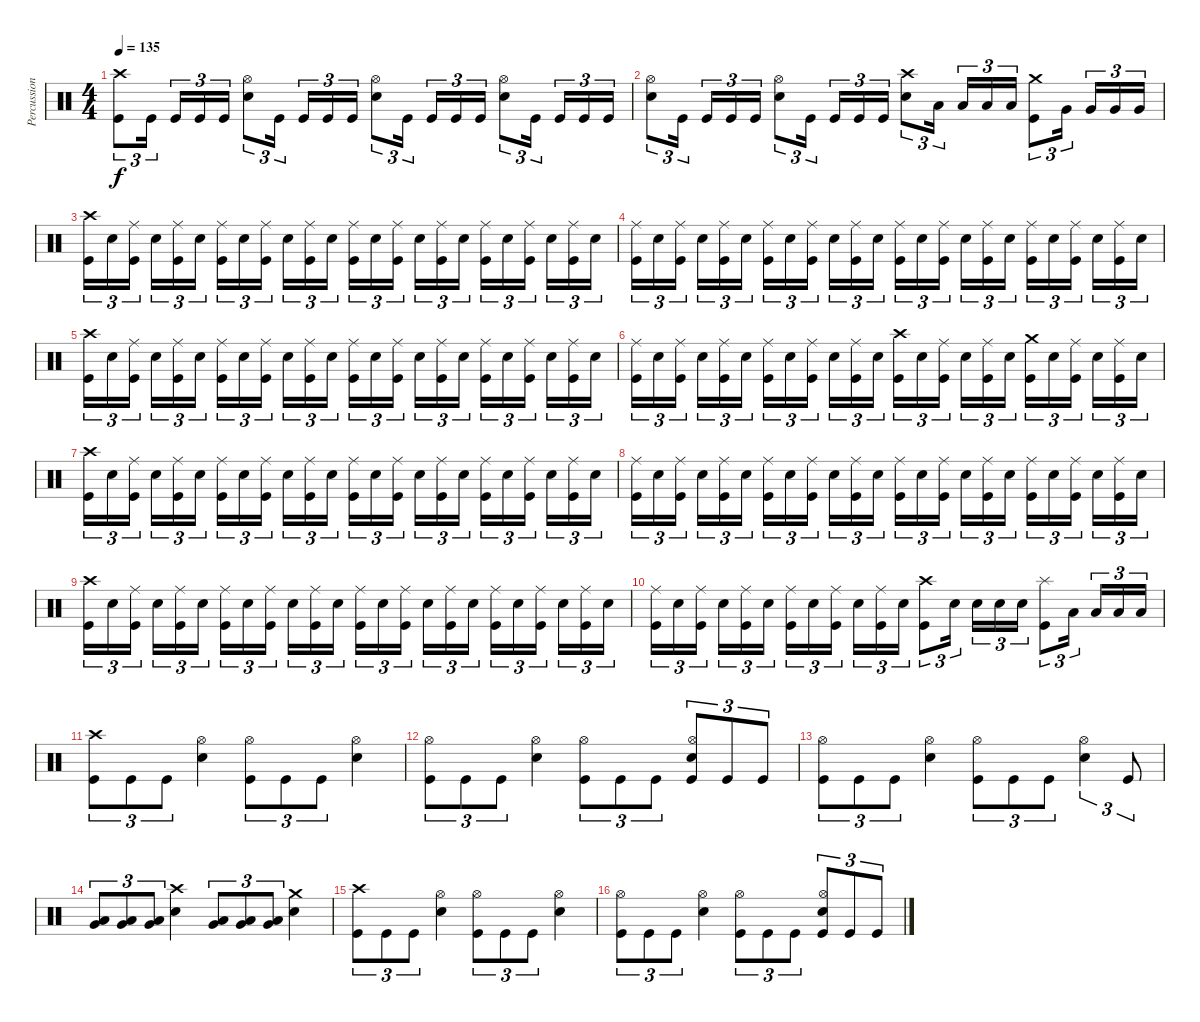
\track ("Percussions" "Percussion") {instrument percussion}
\staff {score}
\articulation defaults
\ts (4 4)
\tempo 135
\clef neutral
\ks c
("Crash high (hit)" "Kick (hit)").8{tu (3 2) dy f} "Kick (hit)".16{tu (3 2) beam splitsecondary} "Kick (hit)".16{tu (3 2)} "Kick (hit)".16{tu (3 2)} "Kick (hit)".16{tu (3 2)} ("Hi-Hat (open)" "Electric Snare (hit)").8{tu (3 2)} "Kick (hit)".16{tu (3 2) beam splitsecondary} "Kick (hit)".16{tu (3 2)} "Kick (hit)".16{tu (3 2)} "Kick (hit)".16{tu (3 2)} ("Hi-Hat (open)" "Electric Snare (hit)").8{tu (3 2)} "Kick (hit)".16{tu (3 2) beam splitsecondary} "Kick (hit)".16{tu (3 2)} "Kick (hit)".16{tu (3 2)} "Kick (hit)".16{tu (3 2)} ("Hi-Hat (open)" "Electric Snare (hit)").8{tu (3 2)} "Kick (hit)".16{tu (3 2) beam splitsecondary} "Kick (hit)".16{tu (3 2)} "Kick (hit)".16{tu (3 2)} "Kick (hit)".16{tu (3 2)} |
("Hi-Hat (open)" "Electric Snare (hit)").8{tu (3 2)} "Kick (hit)".16{tu (3 2) beam splitsecondary} "Kick (hit)".16{tu (3 2)} "Kick (hit)".16{tu (3 2)} "Kick (hit)".16{tu (3 2)} ("Hi-Hat (open)" "Electric Snare (hit)").8{tu (3 2)} "Kick (hit)".16{tu (3 2) beam splitsecondary} "Kick (hit)".16{tu (3 2)} "Kick (hit)".16{tu (3 2)} "Kick (hit)".16{tu (3 2)} ("Crash high (hit)" "Electric Snare (hit)").8{tu (3 2)} "Low Tom (hit)".16{tu (3 2) beam splitsecondary} "Low Tom (hit)".16{tu (3 2)} "Low Tom (hit)".16{tu (3 2)} "Low Tom (hit)".16{tu (3 2)} ("Crash medium (hit)" "Kick (hit)").8{tu (3 2)} "Very Low Tom (hit)".16{tu (3 2) beam splitsecondary} "Very Low Tom (hit)".16{tu (3 2)} "Very Low Tom (hit)".16{tu (3 2)} "Very Low Tom (hit)".16{tu (3 2)} |
("Crash high (hit)" "Kick (hit)").16{tu (3 2)} "Electric Snare (hit)".16{tu (3 2)} ("Ride (middle)" "Kick (hit)").16{tu (3 2) beam splitsecondary} "Electric Snare (hit)".16{tu (3 2)} ("Ride (middle)" "Kick (hit)").16{tu (3 2)} "Electric Snare (hit)".16{tu (3 2)} ("Ride (middle)" "Kick (hit)").16{tu (3 2)} "Electric Snare (hit)".16{tu (3 2)} ("Ride (middle)" "Kick (hit)").16{tu (3 2) beam splitsecondary} "Electric Snare (hit)".16{tu (3 2)} ("Ride (middle)" "Kick (hit)").16{tu (3 2)} "Electric Snare (hit)".16{tu (3 2)} ("Ride (middle)" "Kick (hit)").16{tu (3 2)} "Electric Snare (hit)".16{tu (3 2)} ("Ride (middle)" "Kick (hit)").16{tu (3 2) beam splitsecondary} "Electric Snare (hit)".16{tu (3 2)} ("Ride (middle)" "Kick (hit)").16{tu (3 2)} "Electric Snare (hit)".16{tu (3 2)} ("Ride (middle)" "Kick (hit)").16{tu (3 2)} "Electric Snare (hit)".16{tu (3 2)} ("Ride (middle)" "Kick (hit)").16{tu (3 2) beam splitsecondary} "Electric Snare (hit)".16{tu (3 2)} ("Ride (middle)" "Kick (hit)").16{tu (3 2)} "Electric Snare (hit)".16{tu (3 2)} |
("Ride (middle)" "Kick (hit)").16{tu (3 2)} "Electric Snare (hit)".16{tu (3 2)} ("Ride (middle)" "Kick (hit)").16{tu (3 2) beam splitsecondary} "Electric Snare (hit)".16{tu (3 2)} ("Ride (middle)" "Kick (hit)").16{tu (3 2)} "Electric Snare (hit)".16{tu (3 2)} ("Ride (middle)" "Kick (hit)").16{tu (3 2)} "Electric Snare (hit)".16{tu (3 2)} ("Ride (middle)" "Kick (hit)").16{tu (3 2) beam splitsecondary} "Electric Snare (hit)".16{tu (3 2)} ("Ride (middle)" "Kick (hit)").16{tu (3 2)} "Electric Snare (hit)".16{tu (3 2)} ("Ride (middle)" "Kick (hit)").16{tu (3 2)} "Electric Snare (hit)".16{tu (3 2)} ("Ride (middle)" "Kick (hit)").16{tu (3 2) beam splitsecondary} "Electric Snare (hit)".16{tu (3 2)} ("Ride (middle)" "Kick (hit)").16{tu (3 2)} "Electric Snare (hit)".16{tu (3 2)} ("Ride (middle)" "Kick (hit)").16{tu (3 2)} "Electric Snare (hit)".16{tu (3 2)} ("Ride (middle)" "Kick (hit)").16{tu (3 2) beam splitsecondary} "Electric Snare (hit)".16{tu (3 2)} ("Ride (middle)" "Kick (hit)").16{tu (3 2)} "Electric Snare (hit)".16{tu (3 2)} |
("Crash high (hit)" "Kick (hit)").16{tu (3 2)} "Electric Snare (hit)".16{tu (3 2)} ("Ride (middle)" "Kick (hit)").16{tu (3 2) beam splitsecondary} "Electric Snare (hit)".16{tu (3 2)} ("Ride (middle)" "Kick (hit)").16{tu (3 2)} "Electric Snare (hit)".16{tu (3 2)} ("Ride (middle)" "Kick (hit)").16{tu (3 2)} "Electric Snare (hit)".16{tu (3 2)} ("Ride (middle)" "Kick (hit)").16{tu (3 2) beam splitsecondary} "Electric Snare (hit)".16{tu (3 2)} ("Ride (middle)" "Kick (hit)").16{tu (3 2)} "Electric Snare (hit)".16{tu (3 2)} ("Ride (middle)" "Kick (hit)").16{tu (3 2)} "Electric Snare (hit)".16{tu (3 2)} ("Ride (middle)" "Kick (hit)").16{tu (3 2) beam splitsecondary} "Electric Snare (hit)".16{tu (3 2)} ("Ride (middle)" "Kick (hit)").16{tu (3 2)} "Electric Snare (hit)".16{tu (3 2)} ("Ride (middle)" "Kick (hit)").16{tu (3 2)} "Electric Snare (hit)".16{tu (3 2)} ("Ride (middle)" "Kick (hit)").16{tu (3 2) beam splitsecondary} "Electric Snare (hit)".16{tu (3 2)} ("Ride (middle)" "Kick (hit)").16{tu (3 2)} "Electric Snare (hit)".16{tu (3 2)} |
("Ride (middle)" "Kick (hit)").16{tu (3 2)} "Electric Snare (hit)".16{tu (3 2)} ("Ride (middle)" "Kick (hit)").16{tu (3 2) beam splitsecondary} "Electric Snare (hit)".16{tu (3 2)} ("Ride (middle)" "Kick (hit)").16{tu (3 2)} "Electric Snare (hit)".16{tu (3 2)} ("Ride (middle)" "Kick (hit)").16{tu (3 2)} "Electric Snare (hit)".16{tu (3 2)} ("Ride (middle)" "Kick (hit)").16{tu (3 2) beam splitsecondary} "Electric Snare (hit)".16{tu (3 2)} ("Ride (middle)" "Kick (hit)").16{tu (3 2)} "Electric Snare (hit)".16{tu (3 2)} ("Crash high (hit)" "Kick (hit)").16{tu (3 2)} "Electric Snare (hit)".16{tu (3 2)} ("Ride (middle)" "Kick (hit)").16{tu (3 2) beam splitsecondary} "Electric Snare (hit)".16{tu (3 2)} ("Ride (middle)" "Kick (hit)").16{tu (3 2)} "Electric Snare (hit)".16{tu (3 2)} ("Crash medium (hit)" "Kick (hit)").16{tu (3 2)} "Electric Snare (hit)".16{tu (3 2)} ("Ride (middle)" "Kick (hit)").16{tu (3 2) beam splitsecondary} "Electric Snare (hit)".16{tu (3 2)} ("Ride (middle)" "Kick (hit)").16{tu (3 2)} "Electric Snare (hit)".16{tu (3 2)} |
("Crash high (hit)" "Kick (hit)").16{tu (3 2)} "Electric Snare (hit)".16{tu (3 2)} ("Ride (middle)" "Kick (hit)").16{tu (3 2) beam splitsecondary} "Electric Snare (hit)".16{tu (3 2)} ("Ride (middle)" "Kick (hit)").16{tu (3 2)} "Electric Snare (hit)".16{tu (3 2)} ("Ride (middle)" "Kick (hit)").16{tu (3 2)} "Electric Snare (hit)".16{tu (3 2)} ("Ride (middle)" "Kick (hit)").16{tu (3 2) beam splitsecondary} "Electric Snare (hit)".16{tu (3 2)} ("Ride (middle)" "Kick (hit)").16{tu (3 2)} "Electric Snare (hit)".16{tu (3 2)} ("Ride (middle)" "Kick (hit)").16{tu (3 2)} "Electric Snare (hit)".16{tu (3 2)} ("Ride (middle)" "Kick (hit)").16{tu (3 2) beam splitsecondary} "Electric Snare (hit)".16{tu (3 2)} ("Ride (middle)" "Kick (hit)").16{tu (3 2)} "Electric Snare (hit)".16{tu (3 2)} ("Ride (middle)" "Kick (hit)").16{tu (3 2)} "Electric Snare (hit)".16{tu (3 2)} ("Ride (middle)" "Kick (hit)").16{tu (3 2) beam splitsecondary} "Electric Snare (hit)".16{tu (3 2)} ("Ride (middle)" "Kick (hit)").16{tu (3 2)} "Electric Snare (hit)".16{tu (3 2)} |
("Ride (middle)" "Kick (hit)").16{tu (3 2)} "Electric Snare (hit)".16{tu (3 2)} ("Ride (middle)" "Kick (hit)").16{tu (3 2) beam splitsecondary} "Electric Snare (hit)".16{tu (3 2)} ("Ride (middle)" "Kick (hit)").16{tu (3 2)} "Electric Snare (hit)".16{tu (3 2)} ("Ride (middle)" "Kick (hit)").16{tu (3 2)} "Electric Snare (hit)".16{tu (3 2)} ("Ride (middle)" "Kick (hit)").16{tu (3 2) beam splitsecondary} "Electric Snare (hit)".16{tu (3 2)} ("Ride (middle)" "Kick (hit)").16{tu (3 2)} "Electric Snare (hit)".16{tu (3 2)} ("Ride (middle)" "Kick (hit)").16{tu (3 2)} "Electric Snare (hit)".16{tu (3 2)} ("Ride (middle)" "Kick (hit)").16{tu (3 2) beam splitsecondary} "Electric Snare (hit)".16{tu (3 2)} ("Ride (middle)" "Kick (hit)").16{tu (3 2)} "Electric Snare (hit)".16{tu (3 2)} ("Ride (middle)" "Kick (hit)").16{tu (3 2)} "Electric Snare (hit)".16{tu (3 2)} ("Ride (middle)" "Kick (hit)").16{tu (3 2) beam splitsecondary} "Electric Snare (hit)".16{tu (3 2)} ("Ride (middle)" "Kick (hit)").16{tu (3 2)} "Electric Snare (hit)".16{tu (3 2)} |
("Crash high (hit)" "Kick (hit)").16{tu (3 2)} "Electric Snare (hit)".16{tu (3 2)} ("Ride (middle)" "Kick (hit)").16{tu (3 2) beam splitsecondary} "Electric Snare (hit)".16{tu (3 2)} ("Ride (middle)" "Kick (hit)").16{tu (3 2)} "Electric Snare (hit)".16{tu (3 2)} ("Ride (middle)" "Kick (hit)").16{tu (3 2)} "Electric Snare (hit)".16{tu (3 2)} ("Ride (middle)" "Kick (hit)").16{tu (3 2) beam splitsecondary} "Electric Snare (hit)".16{tu (3 2)} ("Ride (middle)" "Kick (hit)").16{tu (3 2)} "Electric Snare (hit)".16{tu (3 2)} ("Ride (middle)" "Kick (hit)").16{tu (3 2)} "Electric Snare (hit)".16{tu (3 2)} ("Ride (middle)" "Kick (hit)").16{tu (3 2) beam splitsecondary} "Electric Snare (hit)".16{tu (3 2)} ("Ride (middle)" "Kick (hit)").16{tu (3 2)} "Electric Snare (hit)".16{tu (3 2)} ("Ride (middle)" "Kick (hit)").16{tu (3 2)} "Electric Snare (hit)".16{tu (3 2)} ("Ride (middle)" "Kick (hit)").16{tu (3 2) beam splitsecondary} "Electric Snare (hit)".16{tu (3 2)} ("Ride (middle)" "Kick (hit)").16{tu (3 2)} "Electric Snare (hit)".16{tu (3 2)} |
("Ride (middle)" "Kick (hit)").16{tu (3 2)} "Electric Snare (hit)".16{tu (3 2)} ("Ride (middle)" "Kick (hit)").16{tu (3 2) beam splitsecondary} "Electric Snare (hit)".16{tu (3 2)} ("Ride (middle)" "Kick (hit)").16{tu (3 2)} "Electric Snare (hit)".16{tu (3 2)} ("Ride (middle)" "Kick (hit)").16{tu (3 2)} "Electric Snare (hit)".16{tu (3 2)} ("Ride (middle)" "Kick (hit)").16{tu (3 2) beam splitsecondary} "Electric Snare (hit)".16{tu (3 2)} ("Ride (middle)" "Kick (hit)").16{tu (3 2)} "Electric Snare (hit)".16{tu (3 2)} ("Crash high (hit)" "Kick (hit)").8{tu (3 2)} "Electric Snare (hit)".16{tu (3 2) beam splitsecondary} "Electric Snare (hit)".16{tu (3 2)} "Electric Snare (hit)".16{tu (3 2)} "Electric Snare (hit)".16{tu (3 2)} ("Splash (hit)" "Kick (hit)").8{tu (3 2)} "Low Tom (hit)".16{tu (3 2) beam splitsecondary} "Low Tom (hit)".16{tu (3 2)} "Low Tom (hit)".16{tu (3 2)} "Low Tom (hit)".16{tu (3 2)} |
("Crash high (hit)" "Kick (hit)").8{tu (3 2)} "Kick (hit)".8{tu (3 2)} "Kick (hit)".8{tu (3 2)} ("Hi-Hat (open)" "Electric Snare (hit)").4 ("Hi-Hat (open)" "Kick (hit)").8{tu (3 2)} "Kick (hit)".8{tu (3 2)} "Kick (hit)".8{tu (3 2)} ("Hi-Hat (open)" "Electric Snare (hit)").4 |
("Hi-Hat (open)" "Kick (hit)").8{tu (3 2)} "Kick (hit)".8{tu (3 2)} "Kick (hit)".8{tu (3 2)} ("Hi-Hat (open)" "Electric Snare (hit)").4 ("Hi-Hat (open)" "Kick (hit)").8{tu (3 2)} "Kick (hit)".8{tu (3 2)} "Kick (hit)".8{tu (3 2)} ("Hi-Hat (open)" "Electric Snare (hit)" "Kick (hit)").8{tu (3 2)} "Kick (hit)".8{tu (3 2)} "Kick (hit)".8{tu (3 2)} |
("Hi-Hat (open)" "Kick (hit)").8{tu (3 2)} "Kick (hit)".8{tu (3 2)} "Kick (hit)".8{tu (3 2)} ("Hi-Hat (open)" "Electric Snare (hit)").4 ("Hi-Hat (open)" "Kick (hit)").8{tu (3 2)} "Kick (hit)".8{tu (3 2)} "Kick (hit)".8{tu (3 2)} ("Hi-Hat (open)" "Electric Snare (hit)").4{tu (3 2)} "Kick (hit)".8{tu (3 2)} |
("Low Tom (hit)" "Very Low Tom (hit)").8{tu (3 2)} ("Low Tom (hit)" "Very Low Tom (hit)").8{tu (3 2)} ("Low Tom (hit)" "Very Low Tom (hit)").8{tu (3 2)} ("Crash high (hit)" "Electric Snare (hit)").4 ("Low Tom (hit)" "Very Low Tom (hit)").8{tu (3 2)} ("Low Tom (hit)" "Very Low Tom (hit)").8{tu (3 2)} ("Low Tom (hit)" "Very Low Tom (hit)").8{tu (3 2)} ("Crash medium (hit)" "Electric Snare (hit)").4 |
("Crash high (hit)" "Kick (hit)").8{tu (3 2)} "Kick (hit)".8{tu (3 2)} "Kick (hit)".8{tu (3 2)} ("Hi-Hat (open)" "Electric Snare (hit)").4 ("Hi-Hat (open)" "Kick (hit)").8{tu (3 2)} "Kick (hit)".8{tu (3 2)} "Kick (hit)".8{tu (3 2)} ("Hi-Hat (open)" "Electric Snare (hit)").4 |
("Hi-Hat (open)" "Kick (hit)").8{tu (3 2)} "Kick (hit)".8{tu (3 2)} "Kick (hit)".8{tu (3 2)} ("Hi-Hat (open)" "Electric Snare (hit)").4 ("Hi-Hat (open)" "Kick (hit)").8{tu (3 2)} "Kick (hit)".8{tu (3 2)} "Kick (hit)".8{tu (3 2)} ("Hi-Hat (open)" "Electric Snare (hit)" "Kick (hit)").8{tu (3 2)} "Kick (hit)".8{tu (3 2)} "Kick (hit)".8{tu (3 2)}
